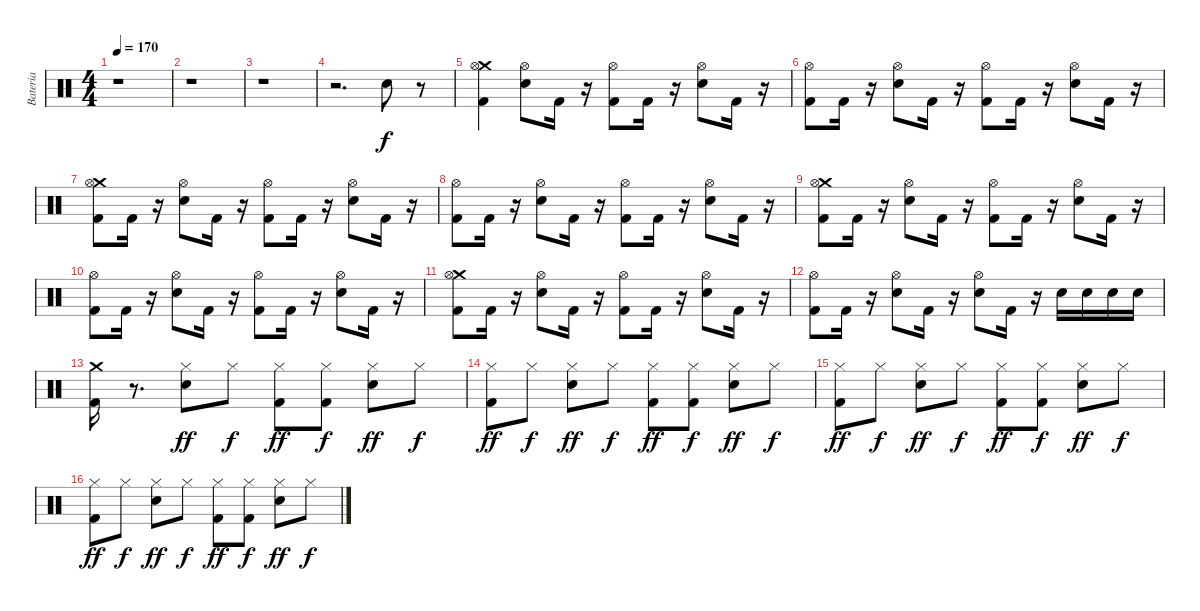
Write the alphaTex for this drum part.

\track ("Bateria" "Bateria") {instrument percussion}
\staff {score}
\articulation defaults
\ts (4 4)
\tempo 170
\clef neutral
\ks c
r.1{dy f} |
r.1 |
r.1 |
r.2{d} "Electric Snare (hit)".8 r.8 |
("Crash medium (hit)" "Hi-Hat (open)" "Kick (hit) 2").4 ("Hi-Hat (open)" "Electric Snare (hit)").8 "Kick (hit) 2".16 r.16 ("Hi-Hat (open)" "Kick (hit) 2").8 "Kick (hit) 2".16 r.16 ("Hi-Hat (open)" "Electric Snare (hit)").8 "Kick (hit) 2".16 r.16 |
("Hi-Hat (open)" "Kick (hit) 2").8 "Kick (hit) 2".16 r.16 ("Hi-Hat (open)" "Electric Snare (hit)").8 "Kick (hit) 2".16 r.16 ("Hi-Hat (open)" "Kick (hit) 2").8 "Kick (hit) 2".16 r.16 ("Hi-Hat (open)" "Electric Snare (hit)").8 "Kick (hit) 2".16 r.16 |
("Crash medium (hit)" "Hi-Hat (open)" "Kick (hit) 2").8 "Kick (hit) 2".16 r.16 ("Hi-Hat (open)" "Electric Snare (hit)").8 "Kick (hit) 2".16 r.16 ("Hi-Hat (open)" "Kick (hit) 2").8 "Kick (hit) 2".16 r.16 ("Hi-Hat (open)" "Electric Snare (hit)").8 "Kick (hit) 2".16 r.16 |
("Hi-Hat (open)" "Kick (hit) 2").8 "Kick (hit) 2".16 r.16 ("Hi-Hat (open)" "Electric Snare (hit)").8 "Kick (hit) 2".16 r.16 ("Hi-Hat (open)" "Kick (hit) 2").8 "Kick (hit) 2".16 r.16 ("Hi-Hat (open)" "Electric Snare (hit)").8 "Kick (hit) 2".16 r.16 |
("Crash medium (hit)" "Hi-Hat (open)" "Kick (hit) 2").8 "Kick (hit) 2".16 r.16 ("Hi-Hat (open)" "Electric Snare (hit)").8 "Kick (hit) 2".16 r.16 ("Hi-Hat (open)" "Kick (hit) 2").8 "Kick (hit) 2".16 r.16 ("Hi-Hat (open)" "Electric Snare (hit)").8 "Kick (hit) 2".16 r.16 |
("Hi-Hat (open)" "Kick (hit) 2").8 "Kick (hit) 2".16 r.16 ("Hi-Hat (open)" "Electric Snare (hit)").8 "Kick (hit) 2".16 r.16 ("Hi-Hat (open)" "Kick (hit) 2").8 "Kick (hit) 2".16 r.16 ("Hi-Hat (open)" "Electric Snare (hit)").8 "Kick (hit) 2".16 r.16 |
("Crash medium (hit)" "Hi-Hat (open)" "Kick (hit) 2").8 "Kick (hit) 2".16 r.16 ("Hi-Hat (open)" "Electric Snare (hit)").8 "Kick (hit) 2".16 r.16 ("Hi-Hat (open)" "Kick (hit) 2").8 "Kick (hit) 2".16 r.16 ("Hi-Hat (open)" "Electric Snare (hit)").8 "Kick (hit) 2".16 r.16 |
("Hi-Hat (open)" "Kick (hit) 2").8 "Kick (hit) 2".16 r.16 ("Hi-Hat (open)" "Electric Snare (hit)").8 "Kick (hit) 2".16 r.16 ("Hi-Hat (open)" "Electric Snare (hit)").8 "Kick (hit) 2".16 r.16 "Electric Snare (hit)".16 "Electric Snare (hit)".16 "Electric Snare (hit)".16 "Electric Snare (hit)".16 |
("Crash medium (hit)" "Kick (hit) 2").16 r.8{d} ("Hi-Hat (closed)" "Electric Snare (hit)").8{dy ff} "Hi-Hat (closed)".8{dy f} ("Hi-Hat (closed)" "Kick (hit) 2").8{dy ff} ("Hi-Hat (closed)" "Kick (hit) 2").8{dy f} ("Hi-Hat (closed)" "Electric Snare (hit)").8{dy ff} "Hi-Hat (closed)".8{dy f} |
("Hi-Hat (closed)" "Kick (hit) 2").8{dy ff} "Hi-Hat (closed)".8{dy f} ("Hi-Hat (closed)" "Electric Snare (hit)").8{dy ff} "Hi-Hat (closed)".8{dy f} ("Hi-Hat (closed)" "Kick (hit) 2").8{dy ff} ("Hi-Hat (closed)" "Kick (hit) 2").8{dy f} ("Hi-Hat (closed)" "Electric Snare (hit)").8{dy ff} "Hi-Hat (closed)".8{dy f} |
("Hi-Hat (closed)" "Kick (hit) 2").8{dy ff} "Hi-Hat (closed)".8{dy f} ("Hi-Hat (closed)" "Electric Snare (hit)").8{dy ff} "Hi-Hat (closed)".8{dy f} ("Hi-Hat (closed)" "Kick (hit) 2").8{dy ff} ("Hi-Hat (closed)" "Kick (hit) 2").8{dy f} ("Hi-Hat (closed)" "Electric Snare (hit)").8{dy ff} "Hi-Hat (closed)".8{dy f} |
("Hi-Hat (closed)" "Kick (hit) 2").8{dy ff} "Hi-Hat (closed)".8{dy f} ("Hi-Hat (closed)" "Electric Snare (hit)").8{dy ff} "Hi-Hat (closed)".8{dy f} ("Hi-Hat (closed)" "Kick (hit) 2").8{dy ff} ("Hi-Hat (closed)" "Kick (hit) 2").8{dy f} ("Hi-Hat (closed)" "Electric Snare (hit)").8{dy ff} "Hi-Hat (closed)".8{dy f}
